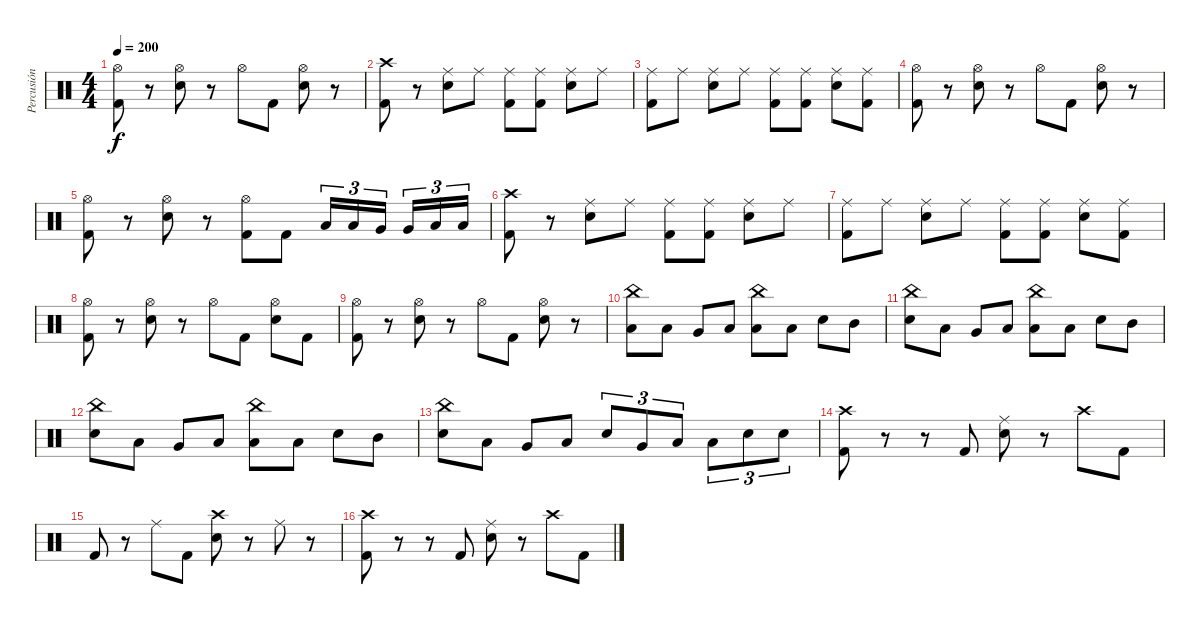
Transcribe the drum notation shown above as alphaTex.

\track ("Percusión" "Percusión") {instrument percussion}
\staff {score}
\articulation defaults
\ts (4 4)
\tempo 200
\clef neutral
\ks c
("Hi-Hat (open)" "Kick (hit) 2").8{dy f} r.8 ("Hi-Hat (open)" "Electric Snare (hit)").8 r.8 "Hi-Hat (open)".8 "Kick (hit) 2".8 ("Hi-Hat (open)" "Electric Snare (hit)").8 r.8 |
("Crash high (hit)" "Kick (hit) 2").8 r.8 ("Ride (middle)" "Electric Snare (hit)").8 "Ride (middle)".8 ("Ride (middle)" "Kick (hit) 2").8 ("Ride (middle)" "Kick (hit) 2").8 ("Ride (middle)" "Electric Snare (hit)").8 "Ride (middle)".8 |
("Ride (middle)" "Kick (hit) 2").8 "Ride (middle)".8 ("Ride (middle)" "Electric Snare (hit)").8 "Ride (middle)".8 ("Ride (middle)" "Kick (hit) 2").8 ("Ride (middle)" "Kick (hit) 2").8 ("Ride (middle)" "Electric Snare (hit)").8 ("Ride (middle)" "Kick (hit) 2").8 |
("Hi-Hat (open)" "Kick (hit) 2").8 r.8 ("Hi-Hat (open)" "Electric Snare (hit)").8 r.8 "Hi-Hat (open)".8 "Kick (hit) 2".8 ("Hi-Hat (open)" "Electric Snare (hit)").8 r.8 |
("Hi-Hat (open)" "Kick (hit) 2").8 r.8 ("Hi-Hat (open)" "Electric Snare (hit)").8 r.8 ("Hi-Hat (open)" "Kick (hit) 2").8 "Kick (hit) 2".8 "Low Tom (hit)".16{tu (3 2)} "Low Tom (hit)".16{tu (3 2)} "Very Low Tom (hit)".16{tu (3 2) beam splitsecondary} "Very Low Tom (hit)".16{tu (3 2)} "Low Floor Tom (hit)".16{tu (3 2)} "Low Floor Tom (hit)".16{tu (3 2)} |
("Crash high (hit)" "Kick (hit) 2").8 r.8 ("Ride (middle)" "Electric Snare (hit)").8 "Ride (middle)".8 ("Ride (middle)" "Kick (hit) 2").8 ("Ride (middle)" "Kick (hit) 2").8 ("Ride (middle)" "Electric Snare (hit)").8 "Ride (middle)".8 |
("Ride (middle)" "Kick (hit) 2").8 "Ride (middle)".8 ("Ride (middle)" "Electric Snare (hit)").8 "Ride (middle)".8 ("Ride (middle)" "Kick (hit) 2").8 ("Ride (middle)" "Kick (hit) 2").8 ("Ride (middle)" "Electric Snare (hit)").8 ("Ride (middle)" "Kick (hit) 2").8 |
("Hi-Hat (open)" "Kick (hit) 2").8 r.8 ("Hi-Hat (open)" "Electric Snare (hit)").8 r.8 "Hi-Hat (open)".8 "Kick (hit) 2".8 ("Hi-Hat (open)" "Electric Snare (hit)").8 "Kick (hit) 2".8 |
("Hi-Hat (open)" "Kick (hit) 2").8 r.8 ("Hi-Hat (open)" "Electric Snare (hit)").8 r.8 "Hi-Hat (open)".8 "Kick (hit) 2".8 ("Hi-Hat (open)" "Electric Snare (hit)").8 r.8 |
("China (hit)" "Low Tom (hit)").8 "Low Tom (hit)".8 "Very Low Tom (hit)".8 "Low Floor Tom (hit)".8 ("China (hit)" "Low Tom (hit)").8 "Low Tom (hit)".8 "Electric Snare (hit)".8 "Mid Tom (hit)".8 |
("China (hit)" "Electric Snare (hit)").8 "Low Tom (hit)".8 "Very Low Tom (hit)".8 "Low Floor Tom (hit)".8 ("China (hit)" "Low Tom (hit)").8 "Low Tom (hit)".8 "Electric Snare (hit)".8 "Mid Tom (hit)".8 |
("China (hit)" "Electric Snare (hit)").8 "Low Tom (hit)".8 "Very Low Tom (hit)".8 "Low Floor Tom (hit)".8 ("China (hit)" "Low Tom (hit)").8 "Low Tom (hit)".8 "Electric Snare (hit)".8 "Mid Tom (hit)".8 |
("China (hit)" "Electric Snare (hit)").8 "Low Tom (hit)".8 "Very Low Tom (hit)".8 "Low Floor Tom (hit)".8 "Electric Snare (hit)".8{tu (3 2)} "Very Low Tom (hit)".8{tu (3 2)} "Low Tom (hit)".8{tu (3 2)} "Low Tom (hit)".8{tu (3 2)} "Electric Snare (hit)".8{tu (3 2)} "Electric Snare (hit)".8{tu (3 2)} |
("Crash high (hit)" "Kick (hit) 2").8 r.8 r.8 "Kick (hit) 2".8 ("Ride (middle)" "Electric Snare (hit)").8 r.8 "Crash high (hit)".8 "Kick (hit) 2".8 |
"Kick (hit) 2".8 r.8 "Ride (middle)".8 "Kick (hit) 2".8 ("Crash high (hit)" "Electric Snare (hit)").8 r.8 "Ride (middle)".8 r.8 |
("Crash high (hit)" "Kick (hit) 2").8 r.8 r.8 "Kick (hit) 2".8 ("Ride (middle)" "Electric Snare (hit)").8 r.8 "Crash high (hit)".8 "Kick (hit) 2".8
